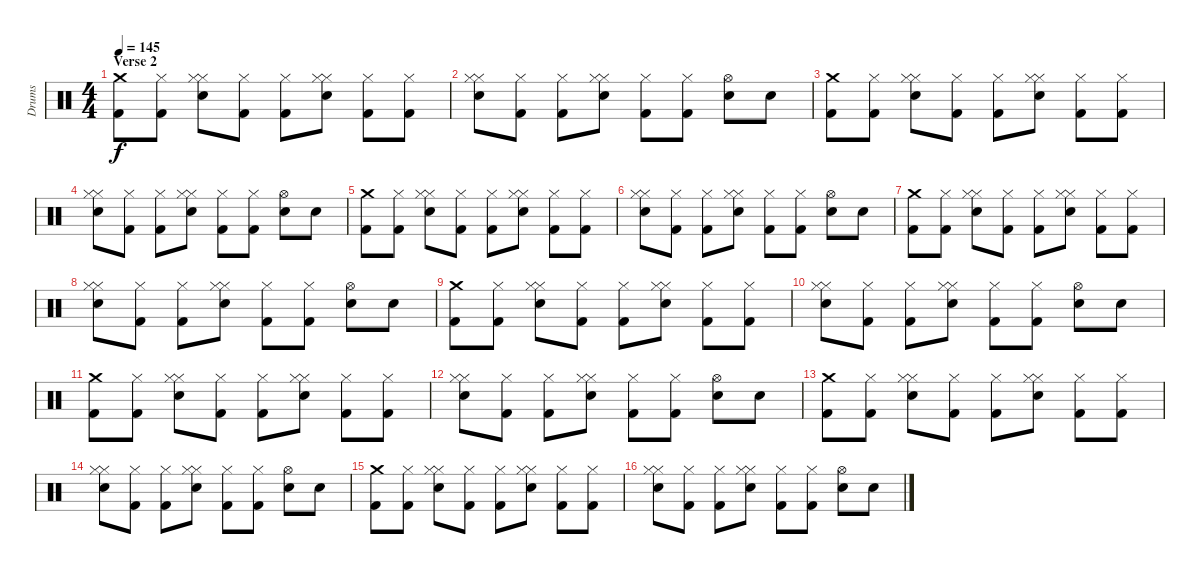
\track ("Drums" "Drums") {instrument percussion}
\staff {score}
\articulation defaults
\ts (4 4)
\section ("" "Verse 2")
\tempo 145
\clef neutral
\ks c
("Crash medium (hit)" "Kick (hit) 2").8{dy f} ("Kick (hit) 2" "Hi-Hat (closed)").8 ("Snare (hit) 2" "Hi-Hat (closed)" "Hi-Hat (closed)").8 ("Kick (hit) 2" "Hi-Hat (closed)").8 ("Kick (hit) 2" "Hi-Hat (closed)").8 ("Snare (hit) 2" "Hi-Hat (closed)" "Hi-Hat (closed)").8 ("Kick (hit) 2" "Hi-Hat (closed)").8 ("Kick (hit) 2" "Hi-Hat (closed)").8 |
("Snare (hit) 2" "Hi-Hat (closed)" "Hi-Hat (closed)").8 ("Kick (hit) 2" "Hi-Hat (closed)").8 ("Kick (hit) 2" "Hi-Hat (closed)").8 ("Snare (hit) 2" "Hi-Hat (closed)" "Hi-Hat (closed)").8 ("Kick (hit) 2" "Hi-Hat (closed)").8 ("Kick (hit) 2" "Hi-Hat (closed)").8 ("Snare (hit) 2" "Hi-Hat (open)").8 "Snare (hit) 2".8 |
("Crash medium (hit)" "Kick (hit) 2").8 ("Kick (hit) 2" "Hi-Hat (closed)").8 ("Snare (hit) 2" "Hi-Hat (closed)" "Hi-Hat (closed)").8 ("Kick (hit) 2" "Hi-Hat (closed)").8 ("Kick (hit) 2" "Hi-Hat (closed)").8 ("Snare (hit) 2" "Hi-Hat (closed)" "Hi-Hat (closed)").8 ("Kick (hit) 2" "Hi-Hat (closed)").8 ("Kick (hit) 2" "Hi-Hat (closed)").8 |
("Snare (hit) 2" "Hi-Hat (closed)" "Hi-Hat (closed)").8 ("Kick (hit) 2" "Hi-Hat (closed)").8 ("Kick (hit) 2" "Hi-Hat (closed)").8 ("Snare (hit) 2" "Hi-Hat (closed)" "Hi-Hat (closed)").8 ("Kick (hit) 2" "Hi-Hat (closed)").8 ("Kick (hit) 2" "Hi-Hat (closed)").8 ("Snare (hit) 2" "Hi-Hat (open)").8 "Snare (hit) 2".8 |
("Crash medium (hit)" "Kick (hit) 2").8 ("Kick (hit) 2" "Hi-Hat (closed)").8 ("Snare (hit) 2" "Hi-Hat (closed)" "Hi-Hat (closed)").8 ("Kick (hit) 2" "Hi-Hat (closed)").8 ("Kick (hit) 2" "Hi-Hat (closed)").8 ("Snare (hit) 2" "Hi-Hat (closed)" "Hi-Hat (closed)").8 ("Kick (hit) 2" "Hi-Hat (closed)").8 ("Kick (hit) 2" "Hi-Hat (closed)").8 |
("Snare (hit) 2" "Hi-Hat (closed)" "Hi-Hat (closed)").8 ("Kick (hit) 2" "Hi-Hat (closed)").8 ("Kick (hit) 2" "Hi-Hat (closed)").8 ("Snare (hit) 2" "Hi-Hat (closed)" "Hi-Hat (closed)").8 ("Kick (hit) 2" "Hi-Hat (closed)").8 ("Kick (hit) 2" "Hi-Hat (closed)").8 ("Snare (hit) 2" "Hi-Hat (open)").8 "Snare (hit) 2".8 |
("Crash medium (hit)" "Kick (hit) 2").8 ("Kick (hit) 2" "Hi-Hat (closed)").8 ("Snare (hit) 2" "Hi-Hat (closed)" "Hi-Hat (closed)").8 ("Kick (hit) 2" "Hi-Hat (closed)").8 ("Kick (hit) 2" "Hi-Hat (closed)").8 ("Snare (hit) 2" "Hi-Hat (closed)" "Hi-Hat (closed)").8 ("Kick (hit) 2" "Hi-Hat (closed)").8 ("Kick (hit) 2" "Hi-Hat (closed)").8 |
("Snare (hit) 2" "Hi-Hat (closed)" "Hi-Hat (closed)").8 ("Kick (hit) 2" "Hi-Hat (closed)").8 ("Kick (hit) 2" "Hi-Hat (closed)").8 ("Snare (hit) 2" "Hi-Hat (closed)" "Hi-Hat (closed)").8 ("Kick (hit) 2" "Hi-Hat (closed)").8 ("Kick (hit) 2" "Hi-Hat (closed)").8 ("Snare (hit) 2" "Hi-Hat (open)").8 "Snare (hit) 2".8 |
("Crash medium (hit)" "Kick (hit) 2").8 ("Kick (hit) 2" "Hi-Hat (closed)").8 ("Snare (hit) 2" "Hi-Hat (closed)" "Hi-Hat (closed)").8 ("Kick (hit) 2" "Hi-Hat (closed)").8 ("Kick (hit) 2" "Hi-Hat (closed)").8 ("Snare (hit) 2" "Hi-Hat (closed)" "Hi-Hat (closed)").8 ("Kick (hit) 2" "Hi-Hat (closed)").8 ("Kick (hit) 2" "Hi-Hat (closed)").8 |
("Snare (hit) 2" "Hi-Hat (closed)" "Hi-Hat (closed)").8 ("Kick (hit) 2" "Hi-Hat (closed)").8 ("Kick (hit) 2" "Hi-Hat (closed)").8 ("Snare (hit) 2" "Hi-Hat (closed)" "Hi-Hat (closed)").8 ("Kick (hit) 2" "Hi-Hat (closed)").8 ("Kick (hit) 2" "Hi-Hat (closed)").8 ("Snare (hit) 2" "Hi-Hat (open)").8 "Snare (hit) 2".8 |
("Crash medium (hit)" "Kick (hit) 2").8 ("Kick (hit) 2" "Hi-Hat (closed)").8 ("Snare (hit) 2" "Hi-Hat (closed)" "Hi-Hat (closed)").8 ("Kick (hit) 2" "Hi-Hat (closed)").8 ("Kick (hit) 2" "Hi-Hat (closed)").8 ("Snare (hit) 2" "Hi-Hat (closed)" "Hi-Hat (closed)").8 ("Kick (hit) 2" "Hi-Hat (closed)").8 ("Kick (hit) 2" "Hi-Hat (closed)").8 |
("Snare (hit) 2" "Hi-Hat (closed)" "Hi-Hat (closed)").8 ("Kick (hit) 2" "Hi-Hat (closed)").8 ("Kick (hit) 2" "Hi-Hat (closed)").8 ("Snare (hit) 2" "Hi-Hat (closed)" "Hi-Hat (closed)").8 ("Kick (hit) 2" "Hi-Hat (closed)").8 ("Kick (hit) 2" "Hi-Hat (closed)").8 ("Snare (hit) 2" "Hi-Hat (open)").8 "Snare (hit) 2".8 |
("Crash medium (hit)" "Kick (hit) 2").8 ("Kick (hit) 2" "Hi-Hat (closed)").8 ("Snare (hit) 2" "Hi-Hat (closed)" "Hi-Hat (closed)").8 ("Kick (hit) 2" "Hi-Hat (closed)").8 ("Kick (hit) 2" "Hi-Hat (closed)").8 ("Snare (hit) 2" "Hi-Hat (closed)" "Hi-Hat (closed)").8 ("Kick (hit) 2" "Hi-Hat (closed)").8 ("Kick (hit) 2" "Hi-Hat (closed)").8 |
("Snare (hit) 2" "Hi-Hat (closed)" "Hi-Hat (closed)").8 ("Kick (hit) 2" "Hi-Hat (closed)").8 ("Kick (hit) 2" "Hi-Hat (closed)").8 ("Snare (hit) 2" "Hi-Hat (closed)" "Hi-Hat (closed)").8 ("Kick (hit) 2" "Hi-Hat (closed)").8 ("Kick (hit) 2" "Hi-Hat (closed)").8 ("Snare (hit) 2" "Hi-Hat (open)").8 "Snare (hit) 2".8 |
("Crash medium (hit)" "Kick (hit) 2").8 ("Kick (hit) 2" "Hi-Hat (closed)").8 ("Snare (hit) 2" "Hi-Hat (closed)" "Hi-Hat (closed)").8 ("Kick (hit) 2" "Hi-Hat (closed)").8 ("Kick (hit) 2" "Hi-Hat (closed)").8 ("Snare (hit) 2" "Hi-Hat (closed)" "Hi-Hat (closed)").8 ("Kick (hit) 2" "Hi-Hat (closed)").8 ("Kick (hit) 2" "Hi-Hat (closed)").8 |
("Snare (hit) 2" "Hi-Hat (closed)" "Hi-Hat (closed)").8 ("Kick (hit) 2" "Hi-Hat (closed)").8 ("Kick (hit) 2" "Hi-Hat (closed)").8 ("Snare (hit) 2" "Hi-Hat (closed)" "Hi-Hat (closed)").8 ("Kick (hit) 2" "Hi-Hat (closed)").8 ("Kick (hit) 2" "Hi-Hat (closed)").8 ("Snare (hit) 2" "Hi-Hat (open)").8 "Snare (hit) 2".8
